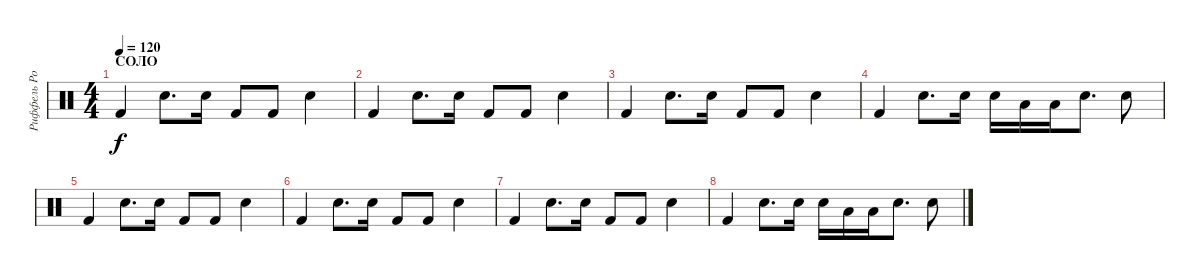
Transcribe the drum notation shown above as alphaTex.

\track ("Риффель Роман(главные)" "Риффель Ро") {instrument percussion}
\staff {score}
\articulation defaults
\ts (4 4)
\section ("" "СОЛО")
\tempo 120
\clef neutral
\ks c "Kick (hit) 2".4{dy f} "Electric Snare (hit)".8{d} "Electric Snare (hit)".16 "Kick (hit) 2".8 "Kick (hit) 2".8 "Electric Snare (hit)".4
|
"Kick (hit) 2".4 "Electric Snare (hit)".8{d} "Electric Snare (hit)".16 "Kick (hit) 2".8 "Kick (hit) 2".8 "Electric Snare (hit)".4 |
"Kick (hit) 2".4 "Electric Snare (hit)".8{d} "Electric Snare (hit)".16 "Kick (hit) 2".8 "Kick (hit) 2".8 "Electric Snare (hit)".4 |
"Kick (hit) 2".4 "Electric Snare (hit)".8{d} "Electric Snare (hit)".16 "Electric Snare (hit)".16 "Low Tom (hit)".16 "Low Tom (hit)".16 "Electric Snare (hit)".8{d} "Electric Snare (hit)".8 |
"Kick (hit) 2".4 "Electric Snare (hit)".8{d} "Electric Snare (hit)".16 "Kick (hit) 2".8 "Kick (hit) 2".8 "Electric Snare (hit)".4 |
"Kick (hit) 2".4 "Electric Snare (hit)".8{d} "Electric Snare (hit)".16 "Kick (hit) 2".8 "Kick (hit) 2".8 "Electric Snare (hit)".4 |
"Kick (hit) 2".4 "Electric Snare (hit)".8{d} "Electric Snare (hit)".16 "Kick (hit) 2".8 "Kick (hit) 2".8 "Electric Snare (hit)".4 |
"Kick (hit) 2".4 "Electric Snare (hit)".8{d} "Electric Snare (hit)".16 "Electric Snare (hit)".16 "Low Tom (hit)".16 "Low Tom (hit)".16 "Electric Snare (hit)".8{d} "Electric Snare (hit)".8
